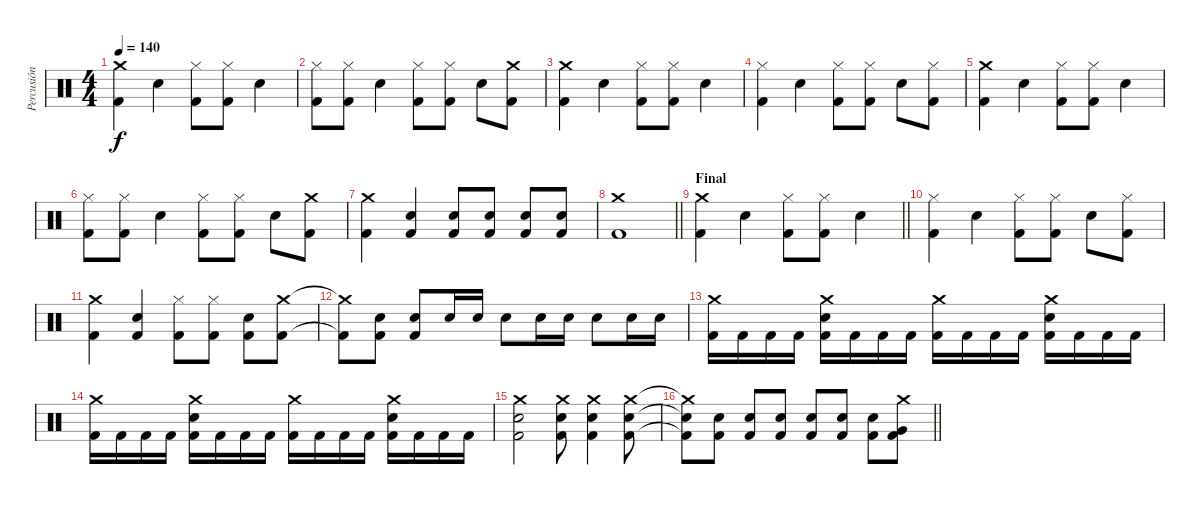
\track ("Percusión" "Percusión") {instrument percussion}
\staff {score}
\articulation defaults
\ts (4 4)
\tempo 140
\clef neutral
\ks c
("Crash medium (hit)" "Kick (hit) 2").4{dy f} "Snare (hit) 2".4 ("Hi-Hat (closed)" "Kick (hit) 2").8 ("Hi-Hat (closed)" "Kick (hit) 2").8 "Snare (hit) 2".4 |
("Hi-Hat (closed)" "Kick (hit) 2").8 ("Hi-Hat (closed)" "Kick (hit) 2").8 "Snare (hit) 2".4 ("Hi-Hat (closed)" "Kick (hit) 2").8 ("Hi-Hat (closed)" "Kick (hit) 2").8 "Snare (hit) 2".8 ("Crash medium (hit)" "Kick (hit) 2").8 |
("Crash medium (hit)" "Kick (hit) 2").4 "Snare (hit) 2".4 ("Hi-Hat (closed)" "Kick (hit) 2").8 ("Hi-Hat (closed)" "Kick (hit) 2").8 "Snare (hit) 2".4 |
("Hi-Hat (closed)" "Kick (hit) 2").4 "Snare (hit) 2".4 ("Hi-Hat (closed)" "Kick (hit) 2").8 ("Hi-Hat (closed)" "Kick (hit) 2").8 "Snare (hit) 2".8 ("Hi-Hat (closed)" "Kick (hit) 2").8 |
("Crash medium (hit)" "Kick (hit) 2").4 "Snare (hit) 2".4 ("Hi-Hat (closed)" "Kick (hit) 2").8 ("Hi-Hat (closed)" "Kick (hit) 2").8 "Snare (hit) 2".4 |
("Hi-Hat (closed)" "Kick (hit) 2").8 ("Hi-Hat (closed)" "Kick (hit) 2").8 "Snare (hit) 2".4 ("Hi-Hat (closed)" "Kick (hit) 2").8 ("Hi-Hat (closed)" "Kick (hit) 2").8 "Snare (hit) 2".8 ("Crash medium (hit)" "Kick (hit) 2").8 |
("Crash medium (hit)" "Kick (hit) 2").4 ("Snare (hit) 2" "Kick (hit) 2").4 ("Snare (hit) 2" "Kick (hit) 2").8 ("Snare (hit) 2" "Kick (hit) 2").8 ("Snare (hit) 2" "Kick (hit) 2").8 ("Snare (hit) 2" "Kick (hit) 2").8 |
\barLineRight lightlight
("Crash medium (hit)" "Kick (hit) 2").1 |
\section ("" "Final")
\barLineRight lightlight
("Crash medium (hit)" "Kick (hit) 2").4 "Snare (hit) 2".4 ("Hi-Hat (closed)" "Kick (hit) 2").8 ("Hi-Hat (closed)" "Kick (hit) 2").8 "Snare (hit) 2".4 |
("Hi-Hat (closed)" "Kick (hit) 2").4 "Snare (hit) 2".4 ("Hi-Hat (closed)" "Kick (hit) 2").8 ("Hi-Hat (closed)" "Kick (hit) 2").8 "Snare (hit) 2".8 ("Hi-Hat (closed)" "Kick (hit) 2").8 |
("Crash medium (hit)" "Kick (hit) 2").4 ("Snare (hit) 2" "Kick (hit) 2").4 ("Hi-Hat (closed)" "Kick (hit) 2").8 ("Hi-Hat (closed)" "Kick (hit) 2").8 ("Snare (hit) 2" "Kick (hit) 2").8 ("Crash medium (hit)" "Kick (hit) 2").8 |
("Crash medium (hit)"{t} "Kick (hit) 2"{t}).8 ("Snare (hit) 2" "Kick (hit) 2").8 ("Snare (hit) 2" "Kick (hit) 2").8 "Snare (hit) 2".16 "Snare (hit) 2".16 "Snare (hit) 2".8 "Snare (hit) 2".16 "Snare (hit) 2".16 "Snare (hit) 2".8 "Snare (hit) 2".16 "Snare (hit) 2".16 |
("Crash medium (hit)" "Kick (hit) 2").16 "Kick (hit) 2".16 "Kick (hit) 2".16 "Kick (hit) 2".16 ("Crash medium (hit)" "Snare (hit) 2" "Kick (hit) 2").16 "Kick (hit) 2".16 "Kick (hit) 2".16 "Kick (hit) 2".16 ("Crash medium (hit)" "Kick (hit) 2").16 "Kick (hit) 2".16 "Kick (hit) 2".16 "Kick (hit) 2".16 ("Crash medium (hit)" "Snare (hit) 2" "Kick (hit) 2").16 "Kick (hit) 2".16 "Kick (hit) 2".16 "Kick (hit) 2".16 |
("Crash medium (hit)" "Kick (hit) 2").16 "Kick (hit) 2".16 "Kick (hit) 2".16 "Kick (hit) 2".16 ("Crash medium (hit)" "Snare (hit) 2" "Kick (hit) 2").16 "Kick (hit) 2".16 "Kick (hit) 2".16 "Kick (hit) 2".16 ("Crash medium (hit)" "Kick (hit) 2").16 "Kick (hit) 2".16 "Kick (hit) 2".16 "Kick (hit) 2".16 ("Crash medium (hit)" "Snare (hit) 2" "Kick (hit) 2").16 "Kick (hit) 2".16 "Kick (hit) 2".16 "Kick (hit) 2".16 |
("Crash medium (hit)" "Snare (hit) 2" "Kick (hit) 2").2 ("Crash medium (hit)" "Snare (hit) 2" "Kick (hit) 2").8 ("Crash medium (hit)" "Snare (hit) 2" "Kick (hit) 2").4 ("Crash medium (hit)" "Snare (hit) 2" "Kick (hit) 2").8 |
\barLineRight lightlight
("Crash medium (hit)"{t} "Snare (hit) 2"{t} "Kick (hit) 2"{t}).8 ("Snare (hit) 2" "Kick (hit) 2").8 ("Snare (hit) 2" "Kick (hit) 2").8 ("Snare (hit) 2" "Kick (hit) 2").8 ("Snare (hit) 2" "Kick (hit) 2").8 ("Snare (hit) 2" "Kick (hit) 2").8 ("Snare (hit) 2" "Kick (hit) 2").8 ("Crash medium (hit)" "Very Low Tom (hit)" "Kick (hit) 2").8
